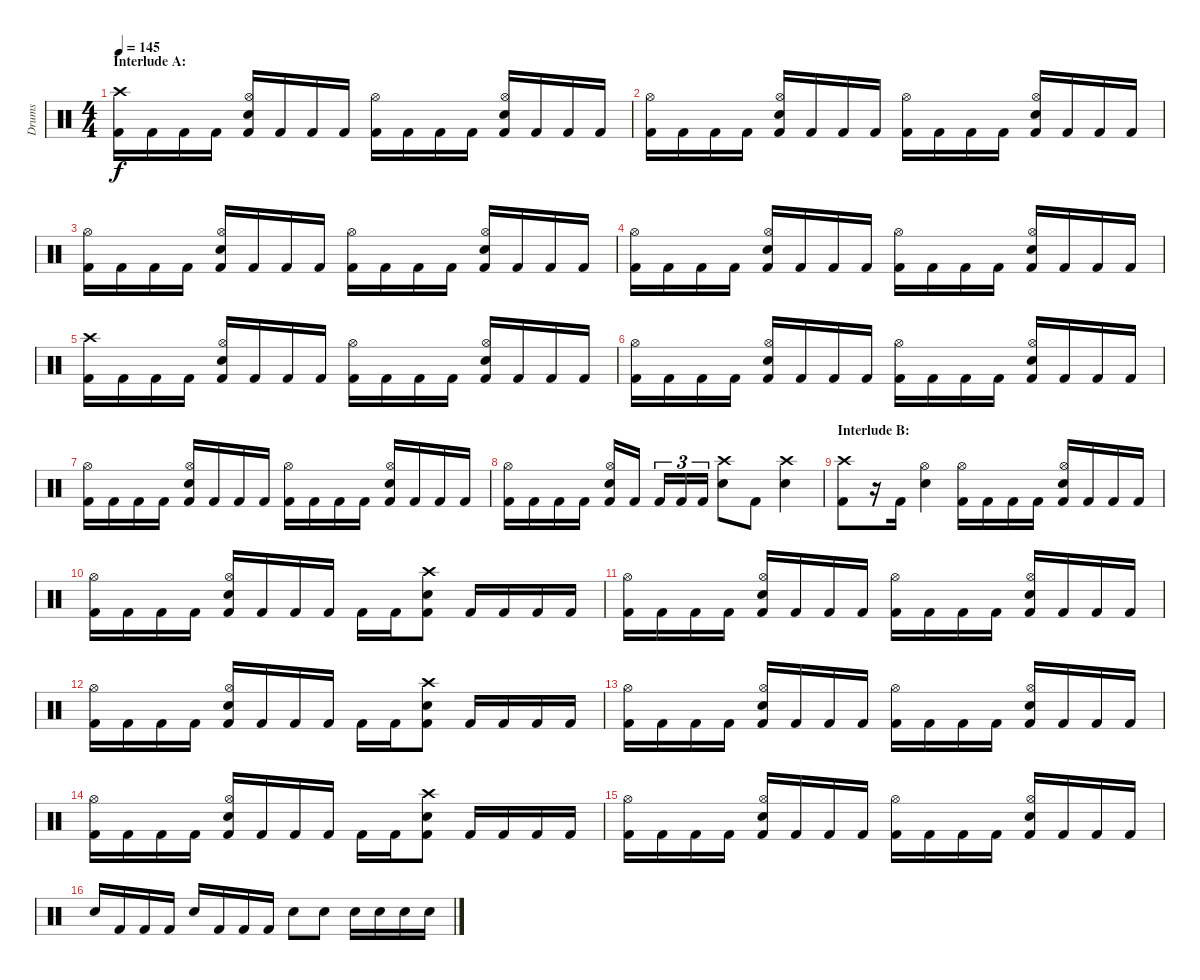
\track ("Drums" "Drums") {instrument percussion}
\staff {score}
\articulation defaults
\ts (4 4)
\section ("" "Interlude A:")
\tempo 145
\clef neutral
\ks c
("Crash high (hit)" "Kick (hit) 2").16{dy f} "Kick (hit) 2".16 "Kick (hit) 2".16 "Kick (hit) 2".16 ("Hi-Hat (open)" "Snare (hit) 2" "Kick (hit) 2").16 "Kick (hit) 2".16 "Kick (hit) 2".16 "Kick (hit) 2".16 ("Hi-Hat (open)" "Kick (hit) 2").16 "Kick (hit) 2".16 "Kick (hit) 2".16 "Kick (hit) 2".16 ("Hi-Hat (open)" "Snare (hit) 2" "Kick (hit) 2").16 "Kick (hit) 2".16 "Kick (hit) 2".16 "Kick (hit) 2".16 |
("Hi-Hat (open)" "Kick (hit) 2").16 "Kick (hit) 2".16 "Kick (hit) 2".16 "Kick (hit) 2".16 ("Hi-Hat (open)" "Snare (hit) 2" "Kick (hit) 2").16 "Kick (hit) 2".16 "Kick (hit) 2".16 "Kick (hit) 2".16 ("Hi-Hat (open)" "Kick (hit) 2").16 "Kick (hit) 2".16 "Kick (hit) 2".16 "Kick (hit) 2".16 ("Hi-Hat (open)" "Snare (hit) 2" "Kick (hit) 2").16 "Kick (hit) 2".16 "Kick (hit) 2".16 "Kick (hit) 2".16 |
("Hi-Hat (open)" "Kick (hit) 2").16 "Kick (hit) 2".16 "Kick (hit) 2".16 "Kick (hit) 2".16 ("Hi-Hat (open)" "Snare (hit) 2" "Kick (hit) 2").16 "Kick (hit) 2".16 "Kick (hit) 2".16 "Kick (hit) 2".16 ("Hi-Hat (open)" "Kick (hit) 2").16 "Kick (hit) 2".16 "Kick (hit) 2".16 "Kick (hit) 2".16 ("Hi-Hat (open)" "Snare (hit) 2" "Kick (hit) 2").16 "Kick (hit) 2".16 "Kick (hit) 2".16 "Kick (hit) 2".16 |
("Hi-Hat (open)" "Kick (hit) 2").16 "Kick (hit) 2".16 "Kick (hit) 2".16 "Kick (hit) 2".16 ("Hi-Hat (open)" "Snare (hit) 2" "Kick (hit) 2").16 "Kick (hit) 2".16 "Kick (hit) 2".16 "Kick (hit) 2".16 ("Hi-Hat (open)" "Kick (hit) 2").16 "Kick (hit) 2".16 "Kick (hit) 2".16 "Kick (hit) 2".16 ("Hi-Hat (open)" "Snare (hit) 2" "Kick (hit) 2").16 "Kick (hit) 2".16 "Kick (hit) 2".16 "Kick (hit) 2".16 |
("Crash high (hit)" "Kick (hit) 2").16 "Kick (hit) 2".16 "Kick (hit) 2".16 "Kick (hit) 2".16 ("Hi-Hat (open)" "Snare (hit) 2" "Kick (hit) 2").16 "Kick (hit) 2".16 "Kick (hit) 2".16 "Kick (hit) 2".16 ("Hi-Hat (open)" "Kick (hit) 2").16 "Kick (hit) 2".16 "Kick (hit) 2".16 "Kick (hit) 2".16 ("Hi-Hat (open)" "Snare (hit) 2" "Kick (hit) 2").16 "Kick (hit) 2".16 "Kick (hit) 2".16 "Kick (hit) 2".16 |
("Hi-Hat (open)" "Kick (hit) 2").16 "Kick (hit) 2".16 "Kick (hit) 2".16 "Kick (hit) 2".16 ("Hi-Hat (open)" "Snare (hit) 2" "Kick (hit) 2").16 "Kick (hit) 2".16 "Kick (hit) 2".16 "Kick (hit) 2".16 ("Hi-Hat (open)" "Kick (hit) 2").16 "Kick (hit) 2".16 "Kick (hit) 2".16 "Kick (hit) 2".16 ("Hi-Hat (open)" "Snare (hit) 2" "Kick (hit) 2").16 "Kick (hit) 2".16 "Kick (hit) 2".16 "Kick (hit) 2".16 |
("Hi-Hat (open)" "Kick (hit) 2").16 "Kick (hit) 2".16 "Kick (hit) 2".16 "Kick (hit) 2".16 ("Hi-Hat (open)" "Snare (hit) 2" "Kick (hit) 2").16 "Kick (hit) 2".16 "Kick (hit) 2".16 "Kick (hit) 2".16 ("Hi-Hat (open)" "Kick (hit) 2").16 "Kick (hit) 2".16 "Kick (hit) 2".16 "Kick (hit) 2".16 ("Hi-Hat (open)" "Snare (hit) 2" "Kick (hit) 2").16 "Kick (hit) 2".16 "Kick (hit) 2".16 "Kick (hit) 2".16 |
("Hi-Hat (open)" "Kick (hit) 2").16 "Kick (hit) 2".16 "Kick (hit) 2".16 "Kick (hit) 2".16 ("Hi-Hat (open)" "Snare (hit) 2" "Kick (hit) 2").16 "Kick (hit) 2".16 "Kick (hit) 2".16{tu (3 2)} "Kick (hit) 2".16{tu (3 2)} "Kick (hit) 2".16{tu (3 2)} ("Crash high (hit)" "Snare (hit) 2").8 "Kick (hit) 2".8 ("Crash high (hit)" "Snare (hit) 2").4 |
\section ("" "Interlude B:")
("Crash high (hit)" "Kick (hit) 2").8 r.16 "Kick (hit) 2".16 ("Hi-Hat (open)" "Snare (hit) 2").4 ("Hi-Hat (open)" "Kick (hit) 2").16 "Kick (hit) 2".16 "Kick (hit) 2".16 "Kick (hit) 2".16 ("Hi-Hat (open)" "Snare (hit) 2" "Kick (hit) 2").16 "Kick (hit) 2".16 "Kick (hit) 2".16 "Kick (hit) 2".16 |
("Hi-Hat (open)" "Kick (hit) 2").16 "Kick (hit) 2".16 "Kick (hit) 2".16 "Kick (hit) 2".16 ("Hi-Hat (open)" "Snare (hit) 2" "Kick (hit) 2").16 "Kick (hit) 2".16 "Kick (hit) 2".16 "Kick (hit) 2".16 "Kick (hit) 2".16 "Kick (hit) 2".16 ("Crash high (hit)" "Snare (hit) 2" "Kick (hit) 2").8 "Kick (hit) 2".16 "Kick (hit) 2".16 "Kick (hit) 2".16 "Kick (hit) 2".16 |
("Hi-Hat (open)" "Kick (hit) 2").16 "Kick (hit) 2".16 "Kick (hit) 2".16 "Kick (hit) 2".16 ("Hi-Hat (open)" "Snare (hit) 2" "Kick (hit) 2").16 "Kick (hit) 2".16 "Kick (hit) 2".16 "Kick (hit) 2".16 ("Hi-Hat (open)" "Kick (hit) 2").16 "Kick (hit) 2".16 "Kick (hit) 2".16 "Kick (hit) 2".16 ("Hi-Hat (open)" "Snare (hit) 2" "Kick (hit) 2").16 "Kick (hit) 2".16 "Kick (hit) 2".16 "Kick (hit) 2".16 |
("Hi-Hat (open)" "Kick (hit) 2").16 "Kick (hit) 2".16 "Kick (hit) 2".16 "Kick (hit) 2".16 ("Hi-Hat (open)" "Snare (hit) 2" "Kick (hit) 2").16 "Kick (hit) 2".16 "Kick (hit) 2".16 "Kick (hit) 2".16 "Kick (hit) 2".16 "Kick (hit) 2".16 ("Crash high (hit)" "Snare (hit) 2" "Kick (hit) 2").8 "Kick (hit) 2".16 "Kick (hit) 2".16 "Kick (hit) 2".16 "Kick (hit) 2".16 |
("Hi-Hat (open)" "Kick (hit) 2").16 "Kick (hit) 2".16 "Kick (hit) 2".16 "Kick (hit) 2".16 ("Hi-Hat (open)" "Snare (hit) 2" "Kick (hit) 2").16 "Kick (hit) 2".16 "Kick (hit) 2".16 "Kick (hit) 2".16 ("Hi-Hat (open)" "Kick (hit) 2").16 "Kick (hit) 2".16 "Kick (hit) 2".16 "Kick (hit) 2".16 ("Hi-Hat (open)" "Snare (hit) 2" "Kick (hit) 2").16 "Kick (hit) 2".16 "Kick (hit) 2".16 "Kick (hit) 2".16 |
("Hi-Hat (open)" "Kick (hit) 2").16 "Kick (hit) 2".16 "Kick (hit) 2".16 "Kick (hit) 2".16 ("Hi-Hat (open)" "Snare (hit) 2" "Kick (hit) 2").16 "Kick (hit) 2".16 "Kick (hit) 2".16 "Kick (hit) 2".16 "Kick (hit) 2".16 "Kick (hit) 2".16 ("Crash high (hit)" "Snare (hit) 2" "Kick (hit) 2").8 "Kick (hit) 2".16 "Kick (hit) 2".16 "Kick (hit) 2".16 "Kick (hit) 2".16 |
("Hi-Hat (open)" "Kick (hit) 2").16 "Kick (hit) 2".16 "Kick (hit) 2".16 "Kick (hit) 2".16 ("Hi-Hat (open)" "Snare (hit) 2" "Kick (hit) 2").16 "Kick (hit) 2".16 "Kick (hit) 2".16 "Kick (hit) 2".16 ("Hi-Hat (open)" "Kick (hit) 2").16 "Kick (hit) 2".16 "Kick (hit) 2".16 "Kick (hit) 2".16 ("Hi-Hat (open)" "Snare (hit) 2" "Kick (hit) 2").16 "Kick (hit) 2".16 "Kick (hit) 2".16 "Kick (hit) 2".16 |
"Snare (hit) 2".16 "Kick (hit) 2".16 "Kick (hit) 2".16 "Kick (hit) 2".16 "Snare (hit) 2".16 "Kick (hit) 2".16 "Kick (hit) 2".16 "Kick (hit) 2".16 "Snare (hit) 2".8 "Snare (hit) 2".8 "Snare (hit) 2".16 "Snare (hit) 2".16 "Snare (hit) 2".16 "Snare (hit) 2".16
